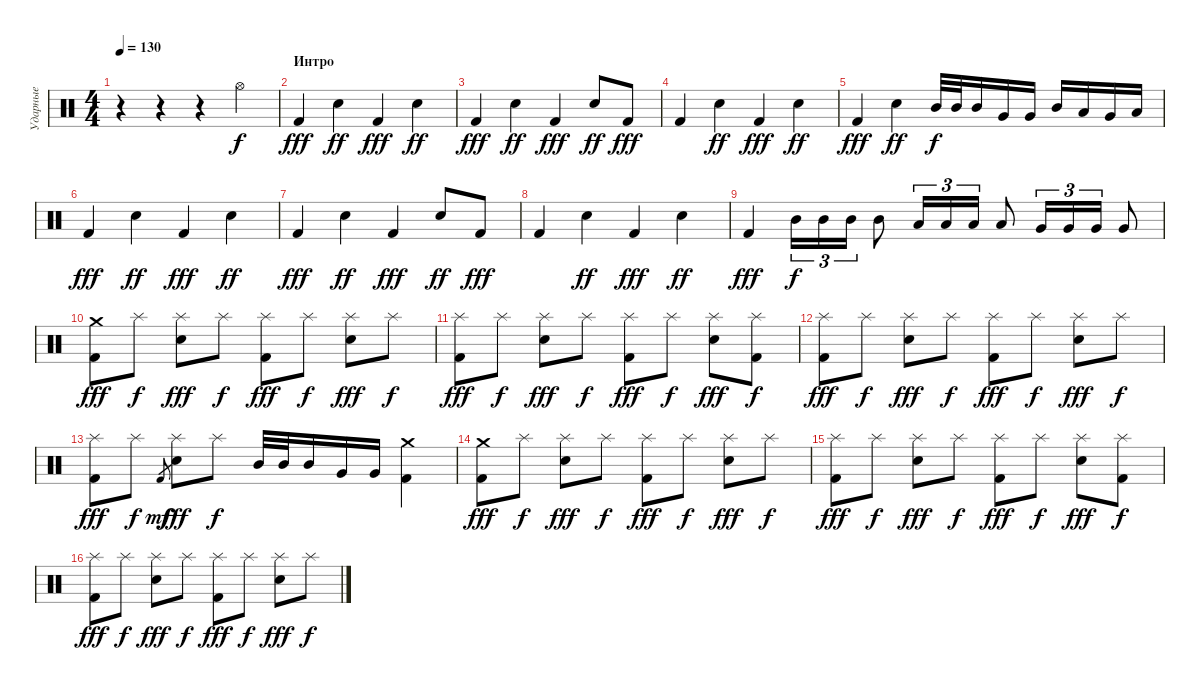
\track ("Ударные" "Ударные") {instrument percussion}
\staff {score}
\articulation defaults
\ts (4 4)
\tempo 130
\clef neutral
\ks c
r.4{dy f} r.4 r.4 "Hi-Hat (open)".4 |
\section ("" "Интро")
"Kick (hit) 2".4{dy fff} "Electric Snare (hit)".4{dy ff} "Kick (hit) 2".4{dy fff} "Electric Snare (hit)".4{dy ff} |
"Kick (hit) 2".4{dy fff} "Electric Snare (hit)".4{dy ff} "Kick (hit) 2".4{dy fff} "Electric Snare (hit)".8{dy ff} "Kick (hit) 2".8{dy fff} |
"Kick (hit) 2".4 "Electric Snare (hit)".4{dy ff} "Kick (hit) 2".4{dy fff} "Electric Snare (hit)".4{dy ff} |
"Kick (hit) 2".4{dy fff} "Electric Snare (hit)".4{dy ff} "Mid Tom (hit)".32{dy f} "Mid Tom (hit)".32 "Mid Tom (hit)".16 "Very Low Tom (hit)".16 "Very Low Tom (hit)".16 "Mid Tom (hit)".16 "Low Tom (hit)".16 "Very Low Tom (hit)".16 "Low Floor Tom (hit)".16 |
"Kick (hit) 2".4{dy fff} "Electric Snare (hit)".4{dy ff} "Kick (hit) 2".4{dy fff} "Electric Snare (hit)".4{dy ff} |
"Kick (hit) 2".4{dy fff} "Electric Snare (hit)".4{dy ff} "Kick (hit) 2".4{dy fff} "Electric Snare (hit)".8{dy ff} "Kick (hit) 2".8{dy fff} |
"Kick (hit) 2".4 "Electric Snare (hit)".4{dy ff} "Kick (hit) 2".4{dy fff} "Electric Snare (hit)".4{dy ff} |
"Kick (hit) 2".4{dy fff} "Mid Tom (hit)".16{tu (3 2) dy f} "Mid Tom (hit)".16{tu (3 2)} "Mid Tom (hit)".16{tu (3 2)} "Mid Tom (hit)".8 "Low Tom (hit)".16{tu (3 2)} "Low Tom (hit)".16{tu (3 2)} "Low Tom (hit)".16{tu (3 2)} "Low Tom (hit)".8 "Very Low Tom (hit)".16{tu (3 2)} "Very Low Tom (hit)".16{tu (3 2)} "Very Low Tom (hit)".16{tu (3 2)} "Very Low Tom (hit)".8 |
("Kick (hit) 2" "Crash medium (hit)").8{dy fff} "Splash (hit)".8{dy f} ("Electric Snare (hit)" "Splash (hit)").8{dy fff} "Splash (hit)".8{dy f} ("Kick (hit) 2" "Splash (hit)").8{dy fff} "Splash (hit)".8{dy f} ("Electric Snare (hit)" "Splash (hit)").8{dy fff} "Splash (hit)".8{dy f} |
("Kick (hit) 2" "Splash (hit)").8{dy fff} "Splash (hit)".8{dy f} ("Electric Snare (hit)" "Splash (hit)").8{dy fff} "Splash (hit)".8{dy f} ("Kick (hit) 2" "Splash (hit)").8{dy fff} "Splash (hit)".8{dy f} ("Electric Snare (hit)" "Splash (hit)").8{dy fff} ("Kick (hit) 2" "Splash (hit)").8{dy f} |
("Kick (hit) 2" "Splash (hit)").8{dy fff} "Splash (hit)".8{dy f} ("Electric Snare (hit)" "Splash (hit)").8{dy fff} "Splash (hit)".8{dy f} ("Kick (hit) 2" "Splash (hit)").8{dy fff} "Splash (hit)".8{dy f} ("Electric Snare (hit)" "Splash (hit)").8{dy fff} "Splash (hit)".8{dy f} |
("Kick (hit) 2" "Splash (hit)").8{dy fff} "Splash (hit)".8{dy f} "Kick (hit) 2".8{gr dy mf} ("Electric Snare (hit)" "Splash (hit)").8{dy fff} "Splash (hit)".8{dy f} "Mid Tom (hit)".32 "Mid Tom (hit)".32 "Mid Tom (hit)".16 "Very Low Tom (hit)".16 "Very Low Tom (hit)".16 ("Kick (hit) 2" "Crash medium (hit)").4 |
("Kick (hit) 2" "Crash medium (hit)").8{dy fff} "Splash (hit)".8{dy f} ("Electric Snare (hit)" "Splash (hit)").8{dy fff} "Splash (hit)".8{dy f} ("Kick (hit) 2" "Splash (hit)").8{dy fff} "Splash (hit)".8{dy f} ("Electric Snare (hit)" "Splash (hit)").8{dy fff} "Splash (hit)".8{dy f} |
("Kick (hit) 2" "Splash (hit)").8{dy fff} "Splash (hit)".8{dy f} ("Electric Snare (hit)" "Splash (hit)").8{dy fff} "Splash (hit)".8{dy f} ("Kick (hit) 2" "Splash (hit)").8{dy fff} "Splash (hit)".8{dy f} ("Electric Snare (hit)" "Splash (hit)").8{dy fff} ("Kick (hit) 2" "Splash (hit)").8{dy f} |
("Kick (hit) 2" "Splash (hit)").8{dy fff} "Splash (hit)".8{dy f} ("Electric Snare (hit)" "Splash (hit)").8{dy fff} "Splash (hit)".8{dy f} ("Kick (hit) 2" "Splash (hit)").8{dy fff} "Splash (hit)".8{dy f} ("Electric Snare (hit)" "Splash (hit)").8{dy fff} "Splash (hit)".8{dy f}
